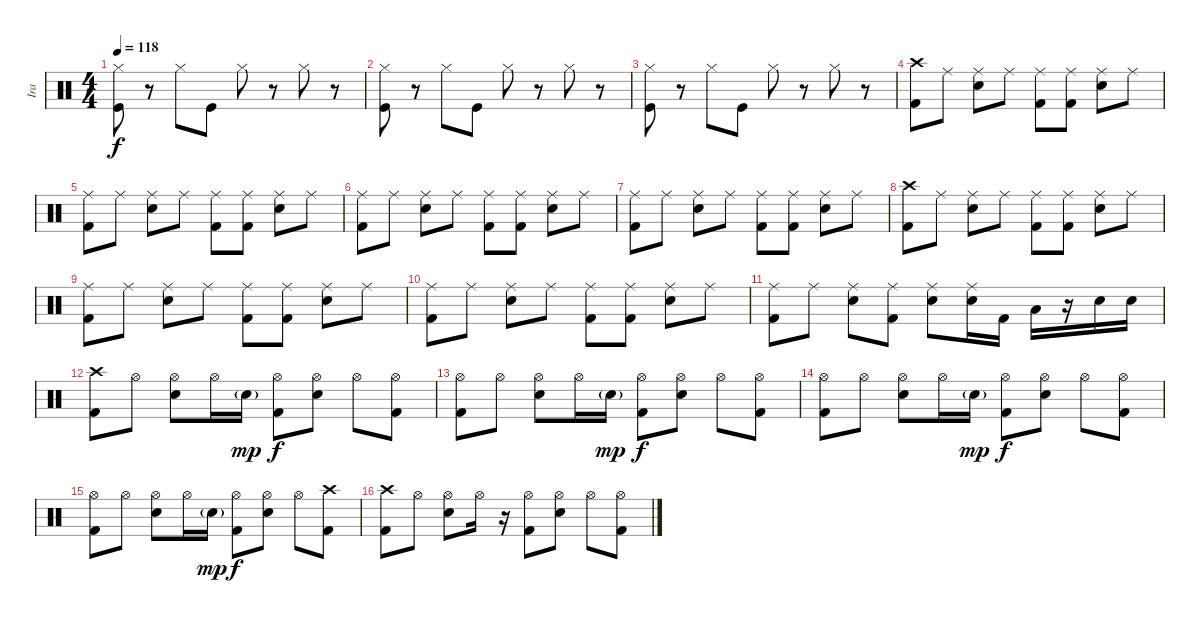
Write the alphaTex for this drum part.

\track ("Ira" "Ira") {instrument percussion}
\staff {score}
\articulation defaults
\ts (4 4)
\tempo 118
\clef neutral
\ks c
("Hi-Hat (closed)" "Kick (hit)").8{dy f} r.8 "Hi-Hat (closed)".8 "Kick (hit)".8 "Hi-Hat (closed)".8 r.8 "Hi-Hat (closed)".8 r.8 |
("Hi-Hat (closed)" "Kick (hit)").8 r.8 "Hi-Hat (closed)".8 "Kick (hit)".8 "Hi-Hat (closed)".8 r.8 "Hi-Hat (closed)".8 r.8 |
("Hi-Hat (closed)" "Kick (hit)").8 r.8 "Hi-Hat (closed)".8 "Kick (hit)".8 "Hi-Hat (closed)".8 r.8 "Hi-Hat (closed)".8 r.8 |
("Crash high (hit)" "Kick (hit) 2").8 "Ride (middle)".8 ("Ride (middle)" "Electric Snare (hit)").8 "Ride (middle)".8 ("Ride (middle)" "Kick (hit) 2").8 ("Ride (middle)" "Kick (hit) 2").8 ("Ride (middle)" "Electric Snare (hit)").8 "Ride (middle)".8 |
("Ride (middle)" "Kick (hit) 2").8 "Ride (middle)".8 ("Ride (middle)" "Electric Snare (hit)").8 "Ride (middle)".8 ("Ride (middle)" "Kick (hit) 2").8 ("Ride (middle)" "Kick (hit) 2").8 ("Ride (middle)" "Electric Snare (hit)").8 "Ride (middle)".8 |
("Ride (middle)" "Kick (hit) 2").8 "Ride (middle)".8 ("Ride (middle)" "Electric Snare (hit)").8 "Ride (middle)".8 ("Ride (middle)" "Kick (hit) 2").8 ("Ride (middle)" "Kick (hit) 2").8 ("Ride (middle)" "Electric Snare (hit)").8 "Ride (middle)".8 |
("Ride (middle)" "Kick (hit) 2").8 "Ride (middle)".8 ("Ride (middle)" "Electric Snare (hit)").8 "Ride (middle)".8 ("Ride (middle)" "Kick (hit) 2").8 ("Ride (middle)" "Kick (hit) 2").8 ("Ride (middle)" "Electric Snare (hit)").8 "Ride (middle)".8 |
("Crash high (hit)" "Kick (hit) 2").8 "Ride (middle)".8 ("Ride (middle)" "Electric Snare (hit)").8 "Ride (middle)".8 ("Ride (middle)" "Kick (hit) 2").8 ("Ride (middle)" "Kick (hit) 2").8 ("Ride (middle)" "Electric Snare (hit)").8 "Ride (middle)".8 |
("Ride (middle)" "Kick (hit) 2").8 "Ride (middle)".8 ("Ride (middle)" "Electric Snare (hit)").8 "Ride (middle)".8 ("Ride (middle)" "Kick (hit) 2").8 ("Ride (middle)" "Kick (hit) 2").8 ("Ride (middle)" "Electric Snare (hit)").8 "Ride (middle)".8 |
("Ride (middle)" "Kick (hit) 2").8 "Ride (middle)".8 ("Ride (middle)" "Electric Snare (hit)").8 "Ride (middle)".8 ("Ride (middle)" "Kick (hit) 2").8 ("Ride (middle)" "Kick (hit) 2").8 ("Ride (middle)" "Electric Snare (hit)").8 "Ride (middle)".8 |
("Ride (middle)" "Kick (hit) 2").8 "Ride (middle)".8 ("Ride (middle)" "Electric Snare (hit)").8 ("Ride (middle)" "Kick (hit) 2").8 ("Ride (middle)" "Electric Snare (hit)").8 ("Ride (middle)" "Electric Snare (hit)").16 "Kick (hit) 2".16 "Low Tom (hit)".16 r.16 "Electric Snare (hit)".16 "Electric Snare (hit)".16 |
("Crash high (hit)" "Kick (hit) 2").8 "Hi-Hat (open)".8 ("Hi-Hat (open)" "Electric Snare (hit)").8 "Hi-Hat (open)".16 "Electric Snare (hit)"{g}.16{dy mp} ("Hi-Hat (open)" "Kick (hit) 2").8{dy f} ("Hi-Hat (open)" "Electric Snare (hit)").8 "Hi-Hat (open)".8 ("Hi-Hat (open)" "Kick (hit) 2").8 |
("Hi-Hat (open)" "Kick (hit) 2").8 "Hi-Hat (open)".8 ("Hi-Hat (open)" "Electric Snare (hit)").8 "Hi-Hat (open)".16 "Electric Snare (hit)"{g}.16{dy mp} ("Hi-Hat (open)" "Kick (hit) 2").8{dy f} ("Hi-Hat (open)" "Electric Snare (hit)").8 "Hi-Hat (open)".8 ("Hi-Hat (open)" "Kick (hit) 2").8 |
("Hi-Hat (open)" "Kick (hit) 2").8 "Hi-Hat (open)".8 ("Hi-Hat (open)" "Electric Snare (hit)").8 "Hi-Hat (open)".16 "Electric Snare (hit)"{g}.16{dy mp} ("Hi-Hat (open)" "Kick (hit) 2").8{dy f} ("Hi-Hat (open)" "Electric Snare (hit)").8 "Hi-Hat (open)".8 ("Hi-Hat (open)" "Kick (hit) 2").8 |
("Hi-Hat (open)" "Kick (hit) 2").8 "Hi-Hat (open)".8 ("Hi-Hat (open)" "Electric Snare (hit)").8 "Hi-Hat (open)".16 "Electric Snare (hit)"{g}.16{dy mp} ("Hi-Hat (open)" "Kick (hit) 2").8{dy f} ("Hi-Hat (open)" "Electric Snare (hit)").8 "Hi-Hat (open)".8 ("Crash high (hit)" "Kick (hit) 2").8 |
("Crash high (hit)" "Kick (hit) 2").8 "Hi-Hat (open)".8 ("Hi-Hat (open)" "Electric Snare (hit)").8 "Hi-Hat (open)".16 r.16 ("Hi-Hat (open)" "Kick (hit) 2").8 ("Hi-Hat (open)" "Electric Snare (hit)").8 "Hi-Hat (open)".8 ("Hi-Hat (open)" "Kick (hit) 2").8
